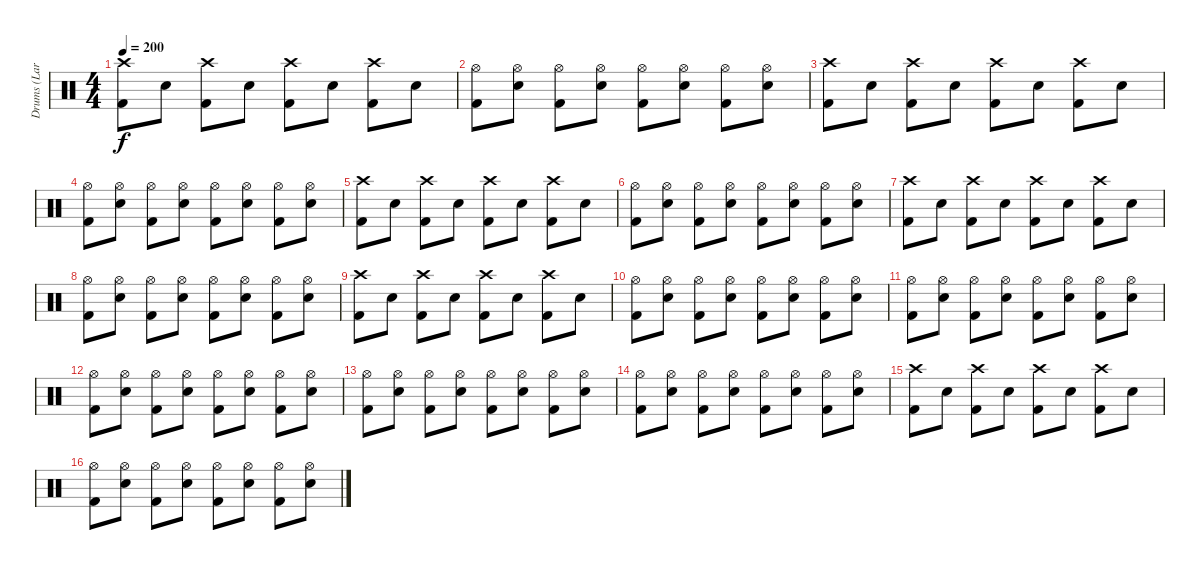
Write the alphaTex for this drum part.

\track ("Drums (Lars Ulrich)" "Drums (Lar") {instrument percussion}
\staff {score}
\articulation defaults
\ts (4 4)
\tempo 200
\clef neutral
\ks c
("Crash high (hit)" "Kick (hit) 2").8{dy f} "Snare (hit) 2".8 ("Crash high (hit)" "Kick (hit) 2").8 "Snare (hit) 2".8 ("Crash high (hit)" "Kick (hit) 2").8 "Snare (hit) 2".8 ("Crash high (hit)" "Kick (hit) 2").8 "Snare (hit) 2".8 |
("Hi-Hat (open)" "Kick (hit) 2").8 ("Hi-Hat (open)" "Snare (hit) 2").8 ("Hi-Hat (open)" "Kick (hit) 2").8 ("Hi-Hat (open)" "Snare (hit) 2").8 ("Hi-Hat (open)" "Kick (hit) 2").8 ("Hi-Hat (open)" "Snare (hit) 2").8 ("Hi-Hat (open)" "Kick (hit) 2").8 ("Hi-Hat (open)" "Snare (hit) 2").8 |
("Crash high (hit)" "Kick (hit) 2").8 "Snare (hit) 2".8 ("Crash high (hit)" "Kick (hit) 2").8 "Snare (hit) 2".8 ("Crash high (hit)" "Kick (hit) 2").8 "Snare (hit) 2".8 ("Crash high (hit)" "Kick (hit) 2").8 "Snare (hit) 2".8 |
("Hi-Hat (open)" "Kick (hit) 2").8 ("Hi-Hat (open)" "Snare (hit) 2").8 ("Hi-Hat (open)" "Kick (hit) 2").8 ("Hi-Hat (open)" "Snare (hit) 2").8 ("Hi-Hat (open)" "Kick (hit) 2").8 ("Hi-Hat (open)" "Snare (hit) 2").8 ("Hi-Hat (open)" "Kick (hit) 2").8 ("Hi-Hat (open)" "Snare (hit) 2").8 |
("Crash high (hit)" "Kick (hit) 2").8 "Snare (hit) 2".8 ("Crash high (hit)" "Kick (hit) 2").8 "Snare (hit) 2".8 ("Crash high (hit)" "Kick (hit) 2").8 "Snare (hit) 2".8 ("Crash high (hit)" "Kick (hit) 2").8 "Snare (hit) 2".8 |
("Hi-Hat (open)" "Kick (hit) 2").8 ("Hi-Hat (open)" "Snare (hit) 2").8 ("Hi-Hat (open)" "Kick (hit) 2").8 ("Hi-Hat (open)" "Snare (hit) 2").8 ("Hi-Hat (open)" "Kick (hit) 2").8 ("Hi-Hat (open)" "Snare (hit) 2").8 ("Hi-Hat (open)" "Kick (hit) 2").8 ("Hi-Hat (open)" "Snare (hit) 2").8 |
("Crash high (hit)" "Kick (hit) 2").8 "Snare (hit) 2".8 ("Crash high (hit)" "Kick (hit) 2").8 "Snare (hit) 2".8 ("Crash high (hit)" "Kick (hit) 2").8 "Snare (hit) 2".8 ("Crash high (hit)" "Kick (hit) 2").8 "Snare (hit) 2".8 |
("Hi-Hat (open)" "Kick (hit) 2").8 ("Hi-Hat (open)" "Snare (hit) 2").8 ("Hi-Hat (open)" "Kick (hit) 2").8 ("Hi-Hat (open)" "Snare (hit) 2").8 ("Hi-Hat (open)" "Kick (hit) 2").8 ("Hi-Hat (open)" "Snare (hit) 2").8 ("Hi-Hat (open)" "Kick (hit) 2").8 ("Hi-Hat (open)" "Snare (hit) 2").8 |
("Crash high (hit)" "Kick (hit) 2").8 "Snare (hit) 2".8 ("Crash high (hit)" "Kick (hit) 2").8 "Snare (hit) 2".8 ("Crash high (hit)" "Kick (hit) 2").8 "Snare (hit) 2".8 ("Crash high (hit)" "Kick (hit) 2").8 "Snare (hit) 2".8 |
("Hi-Hat (open)" "Kick (hit) 2").8 ("Hi-Hat (open)" "Snare (hit) 2").8 ("Hi-Hat (open)" "Kick (hit) 2").8 ("Hi-Hat (open)" "Snare (hit) 2").8 ("Hi-Hat (open)" "Kick (hit) 2").8 ("Hi-Hat (open)" "Snare (hit) 2").8 ("Hi-Hat (open)" "Kick (hit) 2").8 ("Hi-Hat (open)" "Snare (hit) 2").8 |
("Hi-Hat (open)" "Kick (hit) 2").8 ("Hi-Hat (open)" "Snare (hit) 2").8 ("Hi-Hat (open)" "Kick (hit) 2").8 ("Hi-Hat (open)" "Snare (hit) 2").8 ("Hi-Hat (open)" "Kick (hit) 2").8 ("Hi-Hat (open)" "Snare (hit) 2").8 ("Hi-Hat (open)" "Kick (hit) 2").8 ("Hi-Hat (open)" "Snare (hit) 2").8 |
("Hi-Hat (open)" "Kick (hit) 2").8 ("Hi-Hat (open)" "Snare (hit) 2").8 ("Hi-Hat (open)" "Kick (hit) 2").8 ("Hi-Hat (open)" "Snare (hit) 2").8 ("Hi-Hat (open)" "Kick (hit) 2").8 ("Hi-Hat (open)" "Snare (hit) 2").8 ("Hi-Hat (open)" "Kick (hit) 2").8 ("Hi-Hat (open)" "Snare (hit) 2").8 |
("Hi-Hat (open)" "Kick (hit) 2").8 ("Hi-Hat (open)" "Snare (hit) 2").8 ("Hi-Hat (open)" "Kick (hit) 2").8 ("Hi-Hat (open)" "Snare (hit) 2").8 ("Hi-Hat (open)" "Kick (hit) 2").8 ("Hi-Hat (open)" "Snare (hit) 2").8 ("Hi-Hat (open)" "Kick (hit) 2").8 ("Hi-Hat (open)" "Snare (hit) 2").8 |
("Hi-Hat (open)" "Kick (hit) 2").8 ("Hi-Hat (open)" "Snare (hit) 2").8 ("Hi-Hat (open)" "Kick (hit) 2").8 ("Hi-Hat (open)" "Snare (hit) 2").8 ("Hi-Hat (open)" "Kick (hit) 2").8 ("Hi-Hat (open)" "Snare (hit) 2").8 ("Hi-Hat (open)" "Kick (hit) 2").8 ("Hi-Hat (open)" "Snare (hit) 2").8 |
("Crash high (hit)" "Kick (hit) 2").8 "Snare (hit) 2".8 ("Crash high (hit)" "Kick (hit) 2").8 "Snare (hit) 2".8 ("Crash high (hit)" "Kick (hit) 2").8 "Snare (hit) 2".8 ("Crash high (hit)" "Kick (hit) 2").8 "Snare (hit) 2".8 |
("Hi-Hat (open)" "Kick (hit) 2").8 ("Hi-Hat (open)" "Snare (hit) 2").8 ("Hi-Hat (open)" "Kick (hit) 2").8 ("Hi-Hat (open)" "Snare (hit) 2").8 ("Hi-Hat (open)" "Kick (hit) 2").8 ("Hi-Hat (open)" "Snare (hit) 2").8 ("Hi-Hat (open)" "Kick (hit) 2").8 ("Hi-Hat (open)" "Snare (hit) 2").8
